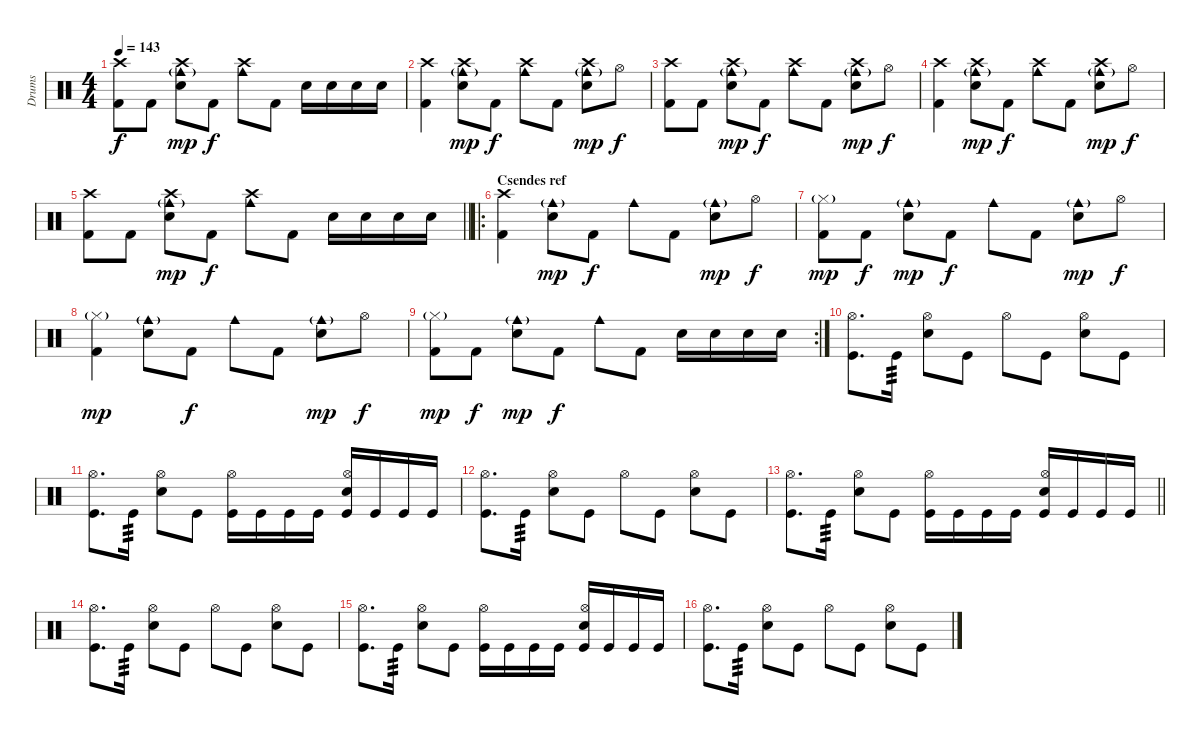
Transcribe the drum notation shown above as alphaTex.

\track ("Drums" "Drums") {instrument percussion}
\staff {score}
\articulation defaults
\ts (4 4)
\tempo 143
\clef neutral
\ks c
("Crash high (hit)" "Kick (hit) 2").8{dy f} "Kick (hit) 2".8 ("Crash high (hit)" "Electric Snare (hit)" "Cowbell medium (hit)"{g}).8{dy mp} "Kick (hit) 2".8{dy f} ("Crash high (hit)" "Cowbell medium (hit)").8 "Kick (hit) 2".8 "Electric Snare (hit)".16 "Electric Snare (hit)".16 "Electric Snare (hit)".16 "Electric Snare (hit)".16 |
("Crash high (hit)" "Kick (hit) 2").4 ("Crash high (hit)" "Electric Snare (hit)" "Cowbell medium (hit)"{g}).8{dy mp} "Kick (hit) 2".8{dy f} ("Crash high (hit)" "Cowbell medium (hit)").8 "Kick (hit) 2".8 ("Crash high (hit)" "Electric Snare (hit)" "Cowbell medium (hit)"{g}).8{dy mp} "Hi-Hat (open)".8{dy f} |
("Crash high (hit)" "Kick (hit) 2").8 "Kick (hit) 2".8 ("Crash high (hit)" "Electric Snare (hit)" "Cowbell medium (hit)"{g}).8{dy mp} "Kick (hit) 2".8{dy f} ("Crash high (hit)" "Cowbell medium (hit)").8 "Kick (hit) 2".8 ("Crash high (hit)" "Electric Snare (hit)" "Cowbell medium (hit)"{g}).8{dy mp} "Hi-Hat (open)".8{dy f} |
("Crash high (hit)" "Kick (hit) 2").4 ("Crash high (hit)" "Electric Snare (hit)" "Cowbell medium (hit)"{g}).8{dy mp} "Kick (hit) 2".8{dy f} ("Crash high (hit)" "Cowbell medium (hit)").8 "Kick (hit) 2".8 ("Crash high (hit)" "Electric Snare (hit)" "Cowbell medium (hit)"{g}).8{dy mp} "Hi-Hat (open)".8{dy f} |
\barLineRight lightlight
("Crash high (hit)" "Kick (hit) 2").8 "Kick (hit) 2".8 ("Crash high (hit)" "Electric Snare (hit)" "Cowbell medium (hit)"{g}).8{dy mp} "Kick (hit) 2".8{dy f} ("Crash high (hit)" "Cowbell medium (hit)").8 "Kick (hit) 2".8 "Electric Snare (hit)".16 "Electric Snare (hit)".16 "Electric Snare (hit)".16 "Electric Snare (hit)".16 |
\ro
\section ("" "Csendes ref")
("Crash high (hit)" "Kick (hit) 2").4 ("Electric Snare (hit)" "Cowbell medium (hit)"{g}).8{dy mp} "Kick (hit) 2".8{dy f} "Cowbell medium (hit)".8 "Kick (hit) 2".8 ("Electric Snare (hit)" "Cowbell medium (hit)"{g}).8{dy mp} "Hi-Hat (open)".8{dy f} |
("Kick (hit) 2" "Hi-Hat (closed)"{g}).8{dy mp} "Kick (hit) 2".8{dy f} ("Electric Snare (hit)" "Cowbell medium (hit)"{g}).8{dy mp} "Kick (hit) 2".8{dy f} "Cowbell medium (hit)".8 "Kick (hit) 2".8 ("Electric Snare (hit)" "Cowbell medium (hit)"{g}).8{dy mp} "Hi-Hat (open)".8{dy f} |
("Kick (hit) 2" "Hi-Hat (closed)"{g}).4{dy mp} ("Electric Snare (hit)" "Cowbell medium (hit)"{g}).8 "Kick (hit) 2".8{dy f} "Cowbell medium (hit)".8 "Kick (hit) 2".8 ("Electric Snare (hit)" "Cowbell medium (hit)"{g}).8{dy mp} "Hi-Hat (open)".8{dy f} |
\rc 2
("Kick (hit) 2" "Hi-Hat (closed)"{g}).8{dy mp} "Kick (hit) 2".8{dy f} ("Electric Snare (hit)" "Cowbell medium (hit)"{g}).8{dy mp} "Kick (hit) 2".8{dy f} "Cowbell medium (hit)".8 "Kick (hit) 2".8 "Electric Snare (hit)".16{balance 0} "Electric Snare (hit)".16{balance 5} "Electric Snare (hit)".16{balance 11} "Electric Snare (hit)".16{balance 16} |
("Hi-Hat (open)" "Kick (hit)").8{d} "Kick (hit)".16{tp 3} ("Hi-Hat (open)" "Electric Snare (hit)").8 "Kick (hit)".8 "Hi-Hat (open)".8 "Kick (hit)".8 ("Hi-Hat (open)" "Electric Snare (hit)").8 "Kick (hit)".8 |
("Hi-Hat (open)" "Kick (hit)").8{d} "Kick (hit)".16{tp 3} ("Hi-Hat (open)" "Electric Snare (hit)").8 "Kick (hit)".8 ("Hi-Hat (open)" "Kick (hit)").16 "Kick (hit)".16 "Kick (hit)".16 "Kick (hit)".16 ("Hi-Hat (open)" "Electric Snare (hit)" "Kick (hit)").16 "Kick (hit)".16 "Kick (hit)".16 "Kick (hit)".16 |
("Hi-Hat (open)" "Kick (hit)").8{d} "Kick (hit)".16{tp 3} ("Hi-Hat (open)" "Electric Snare (hit)").8 "Kick (hit)".8 "Hi-Hat (open)".8 "Kick (hit)".8 ("Hi-Hat (open)" "Electric Snare (hit)").8 "Kick (hit)".8 |
\barLineRight lightlight
("Hi-Hat (open)" "Kick (hit)").8{d} "Kick (hit)".16{tp 3} ("Hi-Hat (open)" "Electric Snare (hit)").8 "Kick (hit)".8 ("Hi-Hat (open)" "Kick (hit)").16 "Kick (hit)".16 "Kick (hit)".16 "Kick (hit)".16 ("Hi-Hat (open)" "Electric Snare (hit)" "Kick (hit)").16 "Kick (hit)".16 "Kick (hit)".16 "Kick (hit)".16 |
("Hi-Hat (open)" "Kick (hit)").8{d} "Kick (hit)".16{tp 3} ("Hi-Hat (open)" "Electric Snare (hit)").8 "Kick (hit)".8 "Hi-Hat (open)".8 "Kick (hit)".8 ("Hi-Hat (open)" "Electric Snare (hit)").8 "Kick (hit)".8 |
("Hi-Hat (open)" "Kick (hit)").8{d} "Kick (hit)".16{tp 3} ("Hi-Hat (open)" "Electric Snare (hit)").8 "Kick (hit)".8 ("Hi-Hat (open)" "Kick (hit)").16 "Kick (hit)".16 "Kick (hit)".16 "Kick (hit)".16 ("Hi-Hat (open)" "Electric Snare (hit)" "Kick (hit)").16 "Kick (hit)".16 "Kick (hit)".16 "Kick (hit)".16 |
("Hi-Hat (open)" "Kick (hit)").8{d} "Kick (hit)".16{tp 3} ("Hi-Hat (open)" "Electric Snare (hit)").8 "Kick (hit)".8 "Hi-Hat (open)".8 "Kick (hit)".8 ("Hi-Hat (open)" "Electric Snare (hit)").8 "Kick (hit)".8
